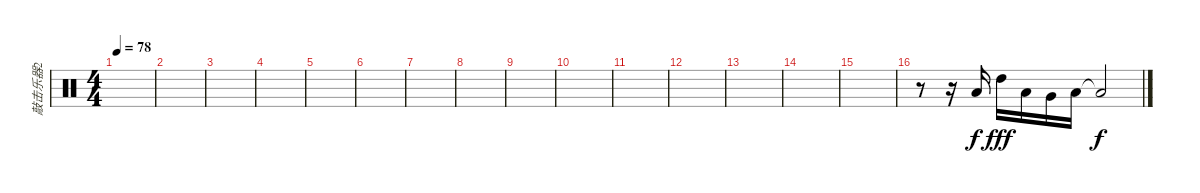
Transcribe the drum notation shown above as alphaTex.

\track ("敲击乐器2" "敲击乐器2") {instrument percussion}
\staff {score}
\articulation defaults
\ts (4 4)
\tempo 78
\clef neutral
\ks c
|
|
|
|
|
|
|
|
|
|
|
|
|
|
|
r.8 r.16 "Low Tom (hit)".16 "High Tom (hit)".16{dy fff} "Low Tom (hit)".16 "Very Low Tom (hit)".16 "Low Floor Tom (hit)".16 "Low Tom (hit)"{t}.2{dy f}
